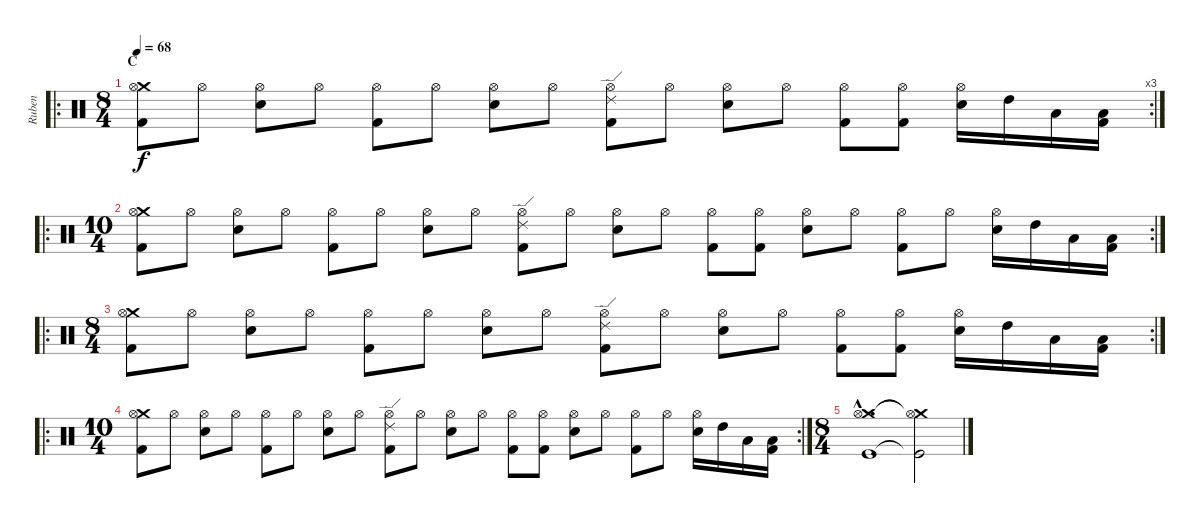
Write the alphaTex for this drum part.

\track ("Ruben" "Ruben") {instrument percussion}
\staff {score}
\articulation defaults
\ro
\rc 3
\ts (8 4)
\section ("" "C")
\tempo 68
\clef neutral
\ks c
("Crash medium (hit)" "Hi-Hat (open)" "Kick (hit) 2").8{dy f} "Hi-Hat (open)".8 ("Hi-Hat (open)" "Electric Snare (hit)").8 "Hi-Hat (open)".8 ("Hi-Hat (open)" "Kick (hit) 2").8 "Hi-Hat (open)".8 ("Hi-Hat (open)" "Electric Snare (hit)").8 "Hi-Hat (open)".8 ("Ride (edge) 2" "Hi-Hat (open)" "Kick (hit) 2").8 "Hi-Hat (open)".8 ("Hi-Hat (open)" "Electric Snare (hit)").8 "Hi-Hat (open)".8 ("Hi-Hat (open)" "Kick (hit) 2").8 ("Hi-Hat (open)" "Kick (hit) 2").8 ("Hi-Hat (open)" "Electric Snare (hit)").16 "High Tom (hit)".16 "Low Tom (hit)".16 ("Low Floor Tom (hit)" "Kick (hit) 2").16 |
\ro
\rc 2
\ts (10 4)
("Crash medium (hit)" "Hi-Hat (open)" "Kick (hit) 2").8 "Hi-Hat (open)".8 ("Hi-Hat (open)" "Electric Snare (hit)").8 "Hi-Hat (open)".8 ("Hi-Hat (open)" "Kick (hit) 2").8 "Hi-Hat (open)".8 ("Hi-Hat (open)" "Electric Snare (hit)").8 "Hi-Hat (open)".8 ("Ride (edge) 2" "Hi-Hat (open)" "Kick (hit) 2").8 "Hi-Hat (open)".8 ("Hi-Hat (open)" "Electric Snare (hit)").8 "Hi-Hat (open)".8 ("Hi-Hat (open)" "Kick (hit) 2").8 ("Hi-Hat (open)" "Kick (hit) 2").8 ("Hi-Hat (open)" "Electric Snare (hit)").8 "Hi-Hat (open)".8 ("Hi-Hat (open)" "Kick (hit) 2").8 "Hi-Hat (open)".8 ("Hi-Hat (open)" "Electric Snare (hit)").16 "High Tom (hit)".16 "Low Tom (hit)".16 ("Low Floor Tom (hit)" "Kick (hit) 2").16 |
\ro
\rc 2
\ts (8 4)
("Crash medium (hit)" "Hi-Hat (open)" "Kick (hit) 2").8 "Hi-Hat (open)".8 ("Hi-Hat (open)" "Electric Snare (hit)").8 "Hi-Hat (open)".8 ("Hi-Hat (open)" "Kick (hit) 2").8 "Hi-Hat (open)".8 ("Hi-Hat (open)" "Electric Snare (hit)").8 "Hi-Hat (open)".8 ("Ride (edge) 2" "Hi-Hat (open)" "Kick (hit) 2").8 "Hi-Hat (open)".8 ("Hi-Hat (open)" "Electric Snare (hit)").8 "Hi-Hat (open)".8 ("Hi-Hat (open)" "Kick (hit) 2").8 ("Hi-Hat (open)" "Kick (hit) 2").8 ("Hi-Hat (open)" "Electric Snare (hit)").16 "High Tom (hit)".16 "Low Tom (hit)".16 ("Low Floor Tom (hit)" "Kick (hit) 2").16 |
\ro
\rc 2
\ts (10 4)
("Crash medium (hit)" "Hi-Hat (open)" "Kick (hit) 2").8 "Hi-Hat (open)".8 ("Hi-Hat (open)" "Electric Snare (hit)").8 "Hi-Hat (open)".8 ("Hi-Hat (open)" "Kick (hit) 2").8 "Hi-Hat (open)".8 ("Hi-Hat (open)" "Electric Snare (hit)").8 "Hi-Hat (open)".8 ("Ride (edge) 2" "Hi-Hat (open)" "Kick (hit) 2").8 "Hi-Hat (open)".8 ("Hi-Hat (open)" "Electric Snare (hit)").8 "Hi-Hat (open)".8 ("Hi-Hat (open)" "Kick (hit) 2").8 ("Hi-Hat (open)" "Kick (hit) 2").8 ("Hi-Hat (open)" "Electric Snare (hit)").8 "Hi-Hat (open)".8 ("Hi-Hat (open)" "Kick (hit) 2").8 "Hi-Hat (open)".8 ("Hi-Hat (open)" "Electric Snare (hit)").16 "High Tom (hit)".16 "Low Tom (hit)".16 ("Low Floor Tom (hit)" "Kick (hit) 2").16 |
\ts (8 4)
("Crash medium (hit)"{hac} "Hi-Hat (open)"{hac} "Kick (hit)"{hac}).1{d} ("Crash medium (hit)"{t} "Hi-Hat (open)"{t} "Kick (hit)"{t}).2
